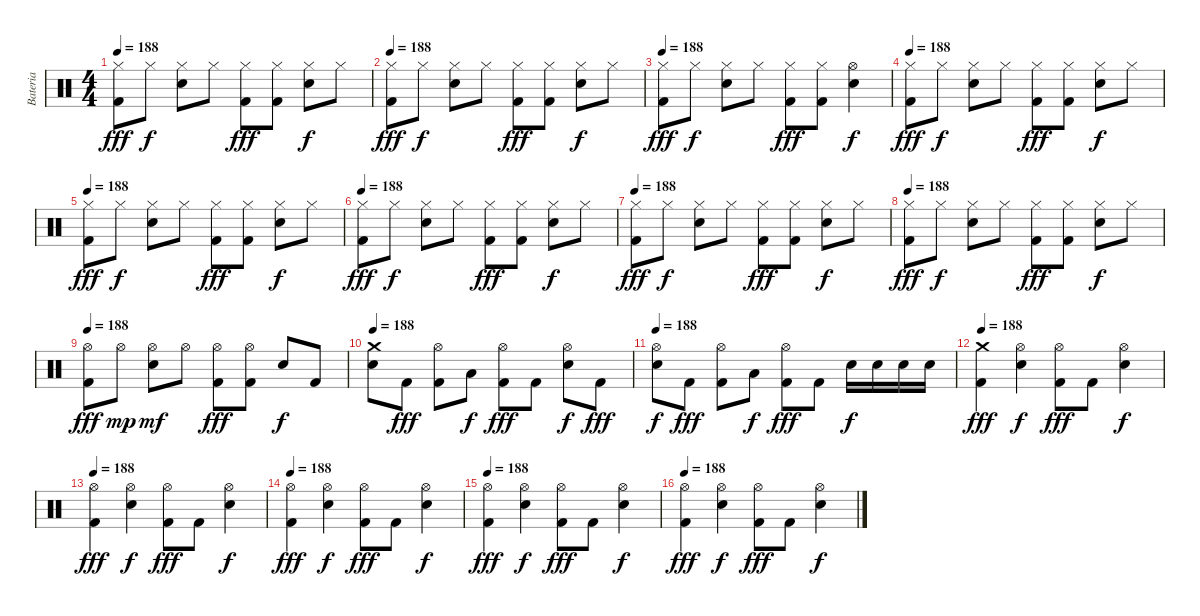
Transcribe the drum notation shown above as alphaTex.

\track ("Bateria" "Bateria") {instrument percussion}
\staff {score}
\articulation defaults
\ts (4 4)
\tempo 188
\clef neutral
\ks c
("Hi-Hat (closed)" "Kick (hit) 2").8{dy fff} "Hi-Hat (closed)".8{dy f} ("Hi-Hat (closed)" "Electric Snare (hit)").8 "Hi-Hat (closed)".8 ("Hi-Hat (closed)" "Kick (hit) 2").8{dy fff} ("Hi-Hat (closed)" "Kick (hit) 2").8 ("Hi-Hat (closed)" "Electric Snare (hit)").8{dy f} "Hi-Hat (closed)".8 |
\tempo 188
("Hi-Hat (closed)" "Kick (hit) 2").8{dy fff} "Hi-Hat (closed)".8{dy f} ("Hi-Hat (closed)" "Electric Snare (hit)").8 "Hi-Hat (closed)".8 ("Hi-Hat (closed)" "Kick (hit) 2").8{dy fff} ("Hi-Hat (closed)" "Kick (hit) 2").8 ("Hi-Hat (closed)" "Electric Snare (hit)").8{dy f} "Hi-Hat (closed)".8 |
\tempo 188
("Hi-Hat (closed)" "Kick (hit) 2").8{dy fff} "Hi-Hat (closed)".8{dy f} ("Hi-Hat (closed)" "Electric Snare (hit)").8 "Hi-Hat (closed)".8 ("Hi-Hat (closed)" "Kick (hit) 2").8{dy fff} ("Hi-Hat (closed)" "Kick (hit) 2").8 ("Hi-Hat (open)" "Electric Snare (hit)").4{dy f} |
\tempo 188
("Hi-Hat (closed)" "Kick (hit) 2").8{dy fff} "Hi-Hat (closed)".8{dy f} ("Hi-Hat (closed)" "Electric Snare (hit)").8 "Hi-Hat (closed)".8 ("Hi-Hat (closed)" "Kick (hit) 2").8{dy fff} ("Hi-Hat (closed)" "Kick (hit) 2").8 ("Hi-Hat (closed)" "Electric Snare (hit)").8{dy f} "Hi-Hat (closed)".8 |
\tempo 188
("Hi-Hat (closed)" "Kick (hit) 2").8{dy fff} "Hi-Hat (closed)".8{dy f} ("Hi-Hat (closed)" "Electric Snare (hit)").8 "Hi-Hat (closed)".8 ("Hi-Hat (closed)" "Kick (hit) 2").8{dy fff} ("Hi-Hat (closed)" "Kick (hit) 2").8 ("Hi-Hat (closed)" "Electric Snare (hit)").8{dy f} "Hi-Hat (closed)".8 |
\tempo 188
("Hi-Hat (closed)" "Kick (hit) 2").8{dy fff} "Hi-Hat (closed)".8{dy f} ("Hi-Hat (closed)" "Electric Snare (hit)").8 "Hi-Hat (closed)".8 ("Hi-Hat (closed)" "Kick (hit) 2").8{dy fff} ("Hi-Hat (closed)" "Kick (hit) 2").8 ("Hi-Hat (closed)" "Electric Snare (hit)").8{dy f} "Hi-Hat (closed)".8 |
\tempo 188
("Hi-Hat (closed)" "Kick (hit) 2").8{dy fff} "Hi-Hat (closed)".8{dy f} ("Hi-Hat (closed)" "Electric Snare (hit)").8 "Hi-Hat (closed)".8 ("Hi-Hat (closed)" "Kick (hit) 2").8{dy fff} ("Hi-Hat (closed)" "Kick (hit) 2").8 ("Hi-Hat (closed)" "Electric Snare (hit)").8{dy f} "Hi-Hat (closed)".8 |
\tempo 188
("Hi-Hat (closed)" "Kick (hit) 2").8{dy fff} "Hi-Hat (closed)".8{dy f} ("Hi-Hat (closed)" "Electric Snare (hit)").8 "Hi-Hat (closed)".8 ("Hi-Hat (closed)" "Kick (hit) 2").8{dy fff} ("Hi-Hat (closed)" "Kick (hit) 2").8 ("Hi-Hat (closed)" "Electric Snare (hit)").8{dy f} "Hi-Hat (closed)".8 |
\tempo 188
("Hi-Hat (open)" "Kick (hit) 2").8{dy fff} "Hi-Hat (open)".8{dy mp} ("Hi-Hat (open)" "Electric Snare (hit)").8{dy mf} "Hi-Hat (open)".8 ("Hi-Hat (open)" "Kick (hit) 2").8{dy fff} ("Hi-Hat (open)" "Kick (hit) 2").8 "Electric Snare (hit)".8{dy f} "Kick (hit) 2".8 |
\tempo 188
("Crash medium (hit)" "Electric Snare (hit)").8 "Kick (hit) 2".8{dy fff} ("Hi-Hat (open)" "Kick (hit) 2").8 "Low Tom (hit)".8{dy f} ("Hi-Hat (open)" "Kick (hit) 2").8{dy fff} "Kick (hit) 2".8 ("Hi-Hat (open)" "Electric Snare (hit)").8{dy f} "Kick (hit) 2".8{dy fff} |
\tempo 188
("Hi-Hat (open)" "Electric Snare (hit)").8{dy f} "Kick (hit) 2".8{dy fff} ("Hi-Hat (open)" "Kick (hit) 2").8 "Low Tom (hit)".8{dy f} ("Hi-Hat (open)" "Kick (hit) 2").8{dy fff} "Kick (hit) 2".8 "Electric Snare (hit)".16{dy f} "Electric Snare (hit)".16 "Electric Snare (hit)".16 "Electric Snare (hit)".16 |
\tempo 188
("Crash medium (hit)" "Kick (hit) 2").4{dy fff} ("Hi-Hat (open)" "Electric Snare (hit)").4{dy f} ("Hi-Hat (open)" "Kick (hit) 2").8{dy fff} "Kick (hit) 2".8 ("Hi-Hat (open)" "Electric Snare (hit)").4{dy f} |
\tempo 188
("Hi-Hat (open)" "Kick (hit) 2").4{dy fff} ("Hi-Hat (open)" "Electric Snare (hit)").4{dy f} ("Hi-Hat (open)" "Kick (hit) 2").8{dy fff} "Kick (hit) 2".8 ("Hi-Hat (open)" "Electric Snare (hit)").4{dy f} |
\tempo 188
("Hi-Hat (open)" "Kick (hit) 2").4{dy fff} ("Hi-Hat (open)" "Electric Snare (hit)").4{dy f} ("Hi-Hat (open)" "Kick (hit) 2").8{dy fff} "Kick (hit) 2".8 ("Hi-Hat (open)" "Electric Snare (hit)").4{dy f} |
\tempo 188
("Hi-Hat (open)" "Kick (hit) 2").4{dy fff} ("Hi-Hat (open)" "Electric Snare (hit)").4{dy f} ("Hi-Hat (open)" "Kick (hit) 2").8{dy fff} "Kick (hit) 2".8 ("Hi-Hat (open)" "Electric Snare (hit)").4{dy f} |
\tempo 188
("Hi-Hat (open)" "Kick (hit) 2").4{dy fff} ("Hi-Hat (open)" "Electric Snare (hit)").4{dy f} ("Hi-Hat (open)" "Kick (hit) 2").8{dy fff} "Kick (hit) 2".8 ("Hi-Hat (open)" "Electric Snare (hit)").4{dy f}
